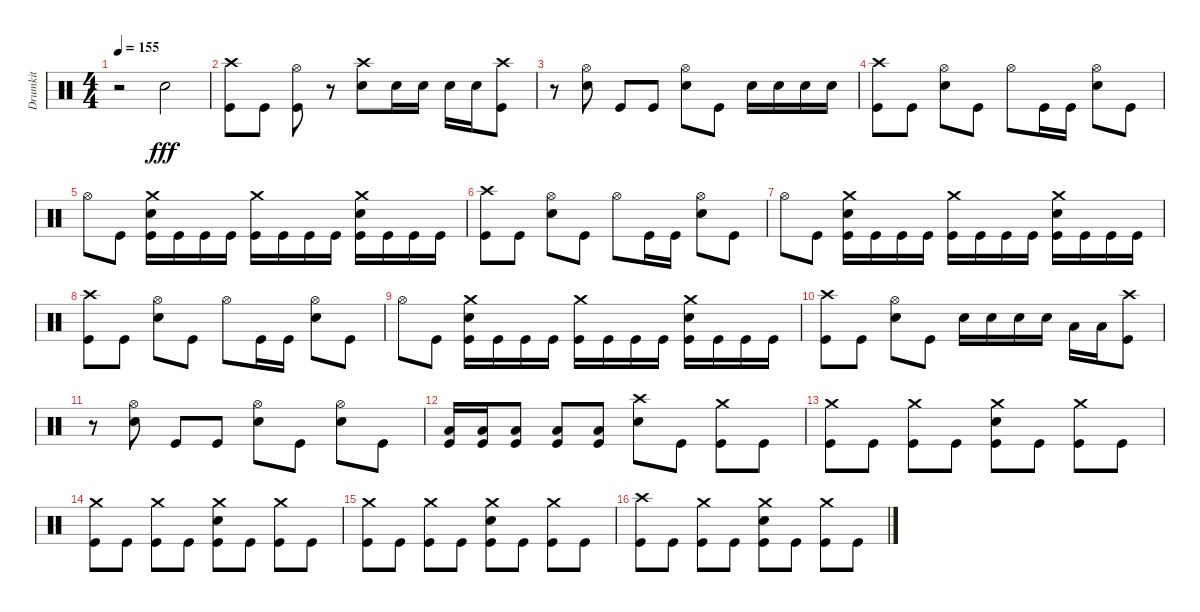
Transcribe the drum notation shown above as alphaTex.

\track ("Drumkit" "Drumkit") {instrument percussion}
\staff {score}
\articulation defaults
\ts (4 4)
\tempo 155
\clef neutral
\ks c
r.2{dy fff} "Snare (hit) 2".2 |
("Crash high (hit)" "Kick (hit)").8 "Kick (hit)".8 ("Hi-Hat (open)" "Kick (hit)").8 r.8 ("Crash high (hit)" "Snare (hit) 2").8 "Snare (hit) 2".16 "Snare (hit) 2".16 "Snare (hit) 2".16 "Snare (hit) 2".16 ("Crash high (hit)" "Kick (hit)").8 |
r.8 ("Hi-Hat (open)" "Snare (hit) 2").8 "Kick (hit)".8 "Kick (hit)".8 ("Hi-Hat (open)" "Snare (hit) 2").8 "Kick (hit)".8 "Snare (hit) 2".16 "Snare (hit) 2".16 "Snare (hit) 2".16 "Snare (hit) 2".16 |
("Crash high (hit)" "Kick (hit)").8 "Kick (hit)".8 ("Hi-Hat (open)" "Snare (hit) 2").8 "Kick (hit)".8 "Hi-Hat (open)".8 "Kick (hit)".16 "Kick (hit)".16 ("Hi-Hat (open)" "Snare (hit) 2").8 "Kick (hit)".8 |
"Hi-Hat (open)".8 "Kick (hit)".8 ("Crash medium (hit)" "Snare (hit) 2" "Kick (hit)").16 "Kick (hit)".16 "Kick (hit)".16 "Kick (hit)".16 ("Crash medium (hit)" "Kick (hit)").16 "Kick (hit)".16 "Kick (hit)".16 "Kick (hit)".16 ("Crash medium (hit)" "Snare (hit) 2" "Kick (hit)").16 "Kick (hit)".16 "Kick (hit)".16 "Kick (hit)".16 |
("Crash high (hit)" "Kick (hit)").8 "Kick (hit)".8 ("Hi-Hat (open)" "Snare (hit) 2").8 "Kick (hit)".8 "Hi-Hat (open)".8 "Kick (hit)".16 "Kick (hit)".16 ("Hi-Hat (open)" "Snare (hit) 2").8 "Kick (hit)".8 |
"Hi-Hat (open)".8 "Kick (hit)".8 ("Crash medium (hit)" "Snare (hit) 2" "Kick (hit)").16 "Kick (hit)".16 "Kick (hit)".16 "Kick (hit)".16 ("Crash medium (hit)" "Kick (hit)").16 "Kick (hit)".16 "Kick (hit)".16 "Kick (hit)".16 ("Crash medium (hit)" "Snare (hit) 2" "Kick (hit)").16 "Kick (hit)".16 "Kick (hit)".16 "Kick (hit)".16 |
("Crash high (hit)" "Kick (hit)").8 "Kick (hit)".8 ("Hi-Hat (open)" "Snare (hit) 2").8 "Kick (hit)".8 "Hi-Hat (open)".8 "Kick (hit)".16 "Kick (hit)".16 ("Hi-Hat (open)" "Snare (hit) 2").8 "Kick (hit)".8 |
"Hi-Hat (open)".8 "Kick (hit)".8 ("Crash medium (hit)" "Snare (hit) 2" "Kick (hit)").16 "Kick (hit)".16 "Kick (hit)".16 "Kick (hit)".16 ("Crash medium (hit)" "Kick (hit)").16 "Kick (hit)".16 "Kick (hit)".16 "Kick (hit)".16 ("Crash medium (hit)" "Snare (hit) 2" "Kick (hit)").16 "Kick (hit)".16 "Kick (hit)".16 "Kick (hit)".16 |
("Crash high (hit)" "Kick (hit)").8 "Kick (hit)".8 ("Hi-Hat (open)" "Snare (hit) 2").8 "Kick (hit)".8 "Snare (hit) 2".16 "Snare (hit) 2".16 "Snare (hit) 2".16 "Snare (hit) 2".16 "Low Tom (hit)".16 "Low Tom (hit)".16 ("Crash high (hit)" "Kick (hit)").8 |
r.8 ("Hi-Hat (open)" "Snare (hit) 2").8 "Kick (hit)".8 "Kick (hit)".8 ("Hi-Hat (open)" "Snare (hit) 2").8 "Kick (hit)".8 ("Hi-Hat (open)" "Snare (hit) 2").8 "Kick (hit)".8 |
("Low Tom (hit)" "Kick (hit)").16 ("Low Tom (hit)" "Kick (hit)").16 ("Low Floor Tom (hit)" "Kick (hit)").8 ("Low Floor Tom (hit)" "Kick (hit)").8 ("Low Floor Tom (hit)" "Kick (hit)").8 ("Crash high (hit)" "Snare (hit) 2").8 "Kick (hit)".8 ("Crash medium (hit)" "Kick (hit)").8 "Kick (hit)".8 |
("Crash medium (hit)" "Kick (hit)").8 "Kick (hit)".8 ("Crash medium (hit)" "Kick (hit)").8 "Kick (hit)".8 ("Crash medium (hit)" "Snare (hit) 2" "Kick (hit)").8 "Kick (hit)".8 ("Crash medium (hit)" "Kick (hit)").8 "Kick (hit)".8 |
("Crash medium (hit)" "Kick (hit)").8 "Kick (hit)".8 ("Crash medium (hit)" "Kick (hit)").8 "Kick (hit)".8 ("Crash medium (hit)" "Snare (hit) 2" "Kick (hit)").8 "Kick (hit)".8 ("Crash medium (hit)" "Kick (hit)").8 "Kick (hit)".8 |
("Crash medium (hit)" "Kick (hit)").8 "Kick (hit)".8 ("Crash medium (hit)" "Kick (hit)").8 "Kick (hit)".8 ("Crash medium (hit)" "Snare (hit) 2" "Kick (hit)").8 "Kick (hit)".8 ("Crash medium (hit)" "Kick (hit)").8 "Kick (hit)".8 |
("Crash high (hit)" "Kick (hit)").8 "Kick (hit)".8 ("Crash medium (hit)" "Kick (hit)").8 "Kick (hit)".8 ("Crash medium (hit)" "Snare (hit) 2" "Kick (hit)").8 "Kick (hit)".8 ("Crash medium (hit)" "Kick (hit)").8 "Kick (hit)".8
